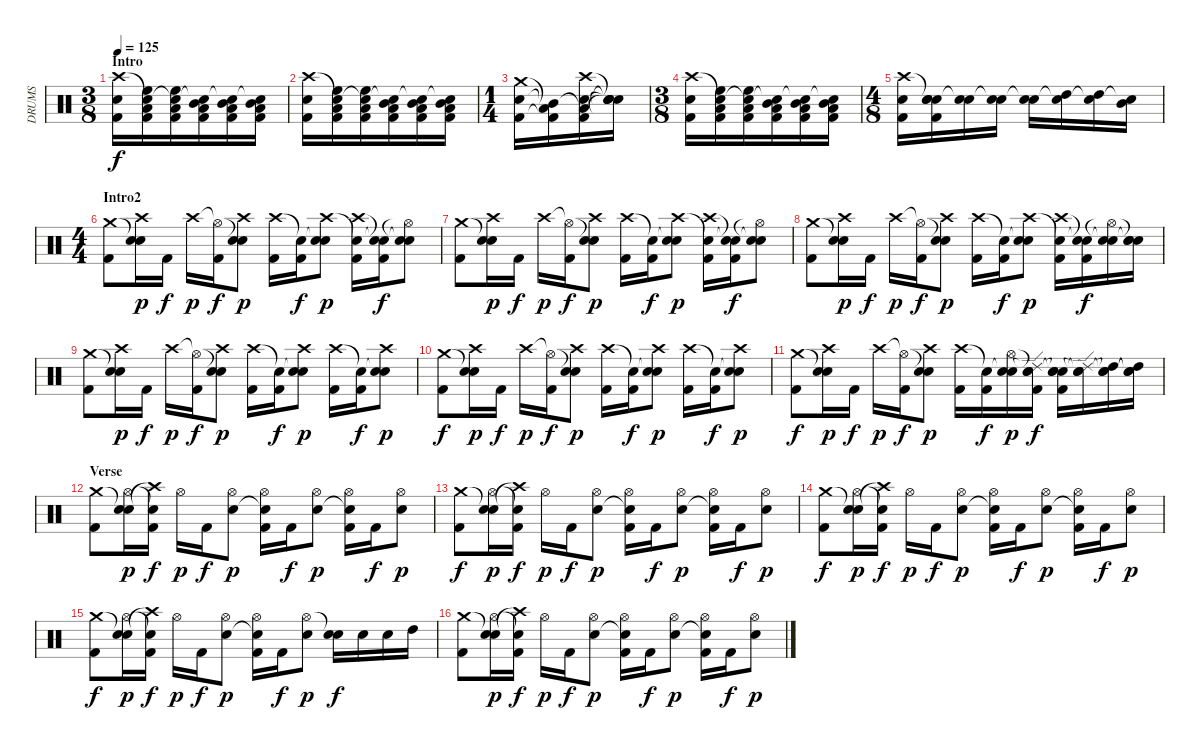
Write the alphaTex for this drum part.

\track ("DRUMS" "DRUMS") {instrument percussion}
\staff {score}
\articulation defaults
\ts (3 8)
\section ("" "Intro")
\tempo 125
\clef neutral
\ks c
("Crash high (hit)" "Electric Snare (hit)" "Kick (hit) 2").16{dy f} ("Snare (hit)"{t} "Low Tom (hit)" "High Floor Tom (hit)" "Kick (hit) 2").16 ("Snare (hit)"{t} "Low Tom (hit)" "High Floor Tom (hit)" "Kick (hit) 2").16 ("Snare (hit)"{t} "Low Floor Tom (hit)" "Mid Tom (hit)" "Kick (hit) 2").16 ("Snare (hit)"{t} "Low Floor Tom (hit)" "Mid Tom (hit)" "Kick (hit) 2").16 ("Snare (hit)"{t} "Low Floor Tom (hit)" "Mid Tom (hit)" "Kick (hit) 2").16 |
("Crash high (hit)" "Electric Snare (hit)" "Kick (hit) 2").16 ("Snare (hit)"{t} "Low Tom (hit)" "High Floor Tom (hit)" "Kick (hit) 2").16 ("Snare (hit)"{t} "Low Tom (hit)" "High Floor Tom (hit)" "Kick (hit) 2").16 ("Snare (hit)"{t} "Low Floor Tom (hit)" "Mid Tom (hit)" "Kick (hit) 2").16 ("Snare (hit)"{t} "Low Floor Tom (hit)" "Mid Tom (hit)" "Kick (hit) 2").16 ("Snare (hit)"{t} "Low Floor Tom (hit)" "Mid Tom (hit)" "Kick (hit) 2").16 |
\ts (1 4)
("Crash medium (hit)" "Electric Snare (hit)" "Kick (hit) 2").16 ("Low Floor Tom (hit)"{t} "Mid Tom (hit)"{t} "Kick (hit) 2"{t}).16 ("Crash high (hit)" "Low Floor Tom (hit)"{t} "Electric Snare (hit)" "Kick (hit) 2").16 ("Snare (hit)"{t} "Snare (hit)"{t} "Snare (hit)"{t} "Snare (hit)"{t}).16 |
\ts (3 8)
("Crash high (hit)" "Electric Snare (hit)" "Kick (hit) 2").16 ("Snare (hit)"{t} "Low Tom (hit)" "High Floor Tom (hit)" "Kick (hit) 2").16 ("Snare (hit)"{t} "Low Tom (hit)" "High Floor Tom (hit)" "Kick (hit) 2").16 ("Snare (hit)"{t} "Low Floor Tom (hit)" "Mid Tom (hit)" "Kick (hit) 2").16 ("Snare (hit)"{t} "Low Floor Tom (hit)" "Mid Tom (hit)" "Kick (hit) 2").16 ("Snare (hit)"{t} "Low Floor Tom (hit)" "Mid Tom (hit)" "Kick (hit) 2").16 |
\ts (4 8)
("Crash high (hit)" "Electric Snare (hit)" "Kick (hit) 2").16 ("Snare (hit)"{t} "Snare (hit) 2" "Electric Snare (hit)" "Kick (hit) 2").16 ("Snare (hit)"{t} "Electric Snare (hit)").16 ("Snare (hit)"{t} "Electric Snare (hit)").16 ("Snare (hit)"{t} "Electric Snare (hit)").16 ("Snare (hit)"{t} "High Tom (hit)").16 ("Snare (hit)"{t} "High Tom (hit)").16 ("Snare (hit)"{t} "Mid Tom (hit)").16 |
\ts (4 4)
\section ("" "Intro2")
("Crash medium (hit)" "Kick (hit) 2").8 ("Snare (hit)"{t} "Crash high (hit)" "Electric Snare (hit)").16{dy p} "Kick (hit) 2".16{dy f} "Crash high (hit)".16{dy p} ("Hi-Hat (open)"{t} "Kick (hit) 2").16{dy f} ("Snare (hit)"{t} "Crash high (hit)" "Electric Snare (hit)").8{dy p} ("Crash high (hit)" "Kick (hit) 2").16 ("Snare (hit)"{t} "Kick (hit) 2").16{dy f} ("Snare (hit)"{t} "Crash high (hit)" "Electric Snare (hit)").8{dy p} ("Crash high (hit)" "Snare (hit)"{t} "Kick (hit) 2").16 ("Snare (hit)"{t} "Snare (hit)"{t} "Kick (hit) 2").16{dy f} ("Snare (hit)"{t} "Hi-Hat (open)"{t} "Electric Snare (hit)").8 |
("Crash medium (hit)" "Kick (hit) 2").8 ("Snare (hit)"{t} "Crash high (hit)" "Electric Snare (hit)").16{dy p} "Kick (hit) 2".16{dy f} "Crash high (hit)".16{dy p} ("Hi-Hat (open)"{t} "Kick (hit) 2").16{dy f} ("Snare (hit)"{t} "Crash high (hit)" "Electric Snare (hit)").8{dy p} ("Crash high (hit)" "Kick (hit) 2").16 ("Snare (hit)"{t} "Kick (hit) 2").16{dy f} ("Snare (hit)"{t} "Crash high (hit)" "Electric Snare (hit)").8{dy p} ("Crash high (hit)" "Snare (hit)"{t} "Kick (hit) 2").16 ("Snare (hit)"{t} "Snare (hit)"{t} "Kick (hit) 2").16{dy f} ("Snare (hit)"{t} "Hi-Hat (open)"{t} "Electric Snare (hit)").8 |
("Crash medium (hit)" "Kick (hit) 2").8 ("Snare (hit)"{t} "Crash high (hit)" "Electric Snare (hit)").16{dy p} "Kick (hit) 2".16{dy f} "Crash high (hit)".16{dy p} ("Hi-Hat (open)"{t} "Kick (hit) 2").16{dy f} ("Snare (hit)"{t} "Crash high (hit)" "Electric Snare (hit)").8{dy p} ("Crash high (hit)" "Kick (hit) 2").16 ("Snare (hit)"{t} "Kick (hit) 2").16{dy f} ("Snare (hit)"{t} "Crash high (hit)" "Electric Snare (hit)").8{dy p} ("Crash high (hit)" "Snare (hit)"{t} "Kick (hit) 2").16 ("Snare (hit)"{t} "Snare (hit)"{t} "Kick (hit) 2").16{dy f} ("Snare (hit)"{t} "Hi-Hat (open)"{t} "Electric Snare (hit)").16 ("Snare (hit)"{t} "Snare (hit)"{t} "Electric Snare (hit)").16 |
("Crash medium (hit)" "Kick (hit) 2").8 ("Snare (hit)"{t} "Crash high (hit)" "Electric Snare (hit)").16{dy p} "Kick (hit) 2".16{dy f} "Crash high (hit)".16{dy p} ("Hi-Hat (open)"{t} "Kick (hit) 2").16{dy f} ("Snare (hit)"{t} "Crash high (hit)" "Electric Snare (hit)").8{dy p} ("Crash high (hit)" "Kick (hit) 2").16 ("Snare (hit)"{t} "Kick (hit) 2").16{dy f} ("Snare (hit)"{t} "Crash high (hit)" "Electric Snare (hit)").8{dy p} ("Crash high (hit)" "Kick (hit) 2").16 ("Snare (hit)"{t} "Kick (hit) 2").16{dy f} ("Snare (hit)"{t} "Crash high (hit)" "Electric Snare (hit)").8{dy p} |
("Crash medium (hit)" "Kick (hit) 2").8{dy f} ("Snare (hit)"{t} "Crash high (hit)" "Electric Snare (hit)").16{dy p} "Kick (hit) 2".16{dy f} "Crash high (hit)".16{dy p} ("Hi-Hat (open)"{t} "Kick (hit) 2").16{dy f} ("Snare (hit)"{t} "Crash high (hit)" "Electric Snare (hit)").8{dy p} ("Crash high (hit)" "Kick (hit) 2").16 ("Snare (hit)"{t} "Kick (hit) 2").16{dy f} ("Snare (hit)"{t} "Crash high (hit)" "Electric Snare (hit)").8{dy p} ("Crash high (hit)" "Kick (hit) 2").16 ("Snare (hit)"{t} "Kick (hit) 2").16{dy f} ("Snare (hit)"{t} "Crash high (hit)" "Electric Snare (hit)").8{dy p} |
("Crash medium (hit)" "Kick (hit) 2").8{dy f} ("Snare (hit)"{t} "Crash high (hit)" "Electric Snare (hit)").16{dy p} "Kick (hit) 2".16{dy f} "Crash high (hit)".16{dy p} ("Hi-Hat (open)"{t} "Kick (hit) 2").16{dy f} ("Snare (hit)"{t} "Crash high (hit)" "Electric Snare (hit)").8{dy p} ("Crash high (hit)" "Kick (hit) 2").16 ("Snare (hit)"{t} "Kick (hit) 2").16{dy f} ("Snare (hit)"{t} "Hi-Hat (open)" "Electric Snare (hit)").16{dy p} ("Ride (edge) 2"{t} "Snare (hit)"{t} "Electric Snare (hit)" "Kick (hit) 2").16{dy f} ("Snare (hit)"{t} "Snare (hit)"{t} "Electric Snare (hit)" "Kick (hit) 2").16 ("Snare (hit)"{t} "Ride (edge) 2"{t} "Electric Snare (hit)").16 ("Snare (hit)"{t} "Snare (hit)"{t} "High Tom (hit)").16 ("Snare (hit)"{t} "Snare (hit)"{t} "High Tom (hit)").16 |
\section ("" "Verse")
("Crash medium (hit)" "Kick (hit) 2").8 ("Snare (hit)"{t} "Hi-Hat (open)" "Electric Snare (hit)").16{dy p} ("Crash high (hit)"{t} "Snare (hit)"{t} "Kick (hit) 2").16{dy f} "Hi-Hat (open)".16{dy p} "Kick (hit) 2".16{dy f} ("Hi-Hat (open)" "Electric Snare (hit)").8{dy p} ("Hi-Hat (open)" "Snare (hit)"{t} "Kick (hit) 2").16 "Kick (hit) 2".16{dy f} ("Hi-Hat (open)" "Electric Snare (hit)").8{dy p} ("Hi-Hat (open)" "Snare (hit)"{t} "Kick (hit) 2").16 "Kick (hit) 2".16{dy f} ("Hi-Hat (open)" "Electric Snare (hit)").8{dy p} |
("Crash medium (hit)" "Kick (hit) 2").8{dy f} ("Snare (hit)"{t} "Hi-Hat (open)" "Electric Snare (hit)").16{dy p} ("Crash high (hit)"{t} "Snare (hit)"{t} "Kick (hit) 2").16{dy f} "Hi-Hat (open)".16{dy p} "Kick (hit) 2".16{dy f} ("Hi-Hat (open)" "Electric Snare (hit)").8{dy p} ("Hi-Hat (open)" "Snare (hit)"{t} "Kick (hit) 2").16 "Kick (hit) 2".16{dy f} ("Hi-Hat (open)" "Electric Snare (hit)").8{dy p} ("Hi-Hat (open)" "Snare (hit)"{t} "Kick (hit) 2").16 "Kick (hit) 2".16{dy f} ("Hi-Hat (open)" "Electric Snare (hit)").8{dy p} |
("Crash medium (hit)" "Kick (hit) 2").8{dy f} ("Snare (hit)"{t} "Hi-Hat (open)" "Electric Snare (hit)").16{dy p} ("Crash high (hit)"{t} "Snare (hit)"{t} "Kick (hit) 2").16{dy f} "Hi-Hat (open)".16{dy p} "Kick (hit) 2".16{dy f} ("Hi-Hat (open)" "Electric Snare (hit)").8{dy p} ("Hi-Hat (open)" "Snare (hit)"{t} "Kick (hit) 2").16 "Kick (hit) 2".16{dy f} ("Hi-Hat (open)" "Electric Snare (hit)").8{dy p} ("Hi-Hat (open)" "Snare (hit)"{t} "Kick (hit) 2").16 "Kick (hit) 2".16{dy f} ("Hi-Hat (open)" "Electric Snare (hit)").8{dy p} |
("Crash medium (hit)" "Kick (hit) 2").8{dy f} ("Snare (hit)"{t} "Hi-Hat (open)" "Electric Snare (hit)").16{dy p} ("Crash high (hit)"{t} "Snare (hit)"{t} "Kick (hit) 2").16{dy f} "Hi-Hat (open)".16{dy p} "Kick (hit) 2".16{dy f} ("Hi-Hat (open)" "Electric Snare (hit)").8{dy p} ("Hi-Hat (open)" "Snare (hit)"{t} "Kick (hit) 2").16 "Kick (hit) 2".16{dy f} ("Hi-Hat (open)" "Electric Snare (hit)").8{dy p} ("Snare (hit)"{t} "Electric Snare (hit)").16{dy f} "Electric Snare (hit)".16 "Electric Snare (hit)".16 "High Tom (hit)".16 |
("Crash medium (hit)" "Kick (hit) 2").8 ("Snare (hit)"{t} "Hi-Hat (open)" "Electric Snare (hit)").16{dy p} ("Crash high (hit)"{t} "Snare (hit)"{t} "Kick (hit) 2").16{dy f} "Hi-Hat (open)".16{dy p} "Kick (hit) 2".16{dy f} ("Hi-Hat (open)" "Electric Snare (hit)").8{dy p} ("Hi-Hat (open)" "Snare (hit)"{t} "Kick (hit) 2").16 "Kick (hit) 2".16{dy f} ("Hi-Hat (open)" "Electric Snare (hit)").8{dy p} ("Hi-Hat (open)" "Snare (hit)"{t} "Kick (hit) 2").16 "Kick (hit) 2".16{dy f} ("Hi-Hat (open)" "Electric Snare (hit)").8{dy p}
